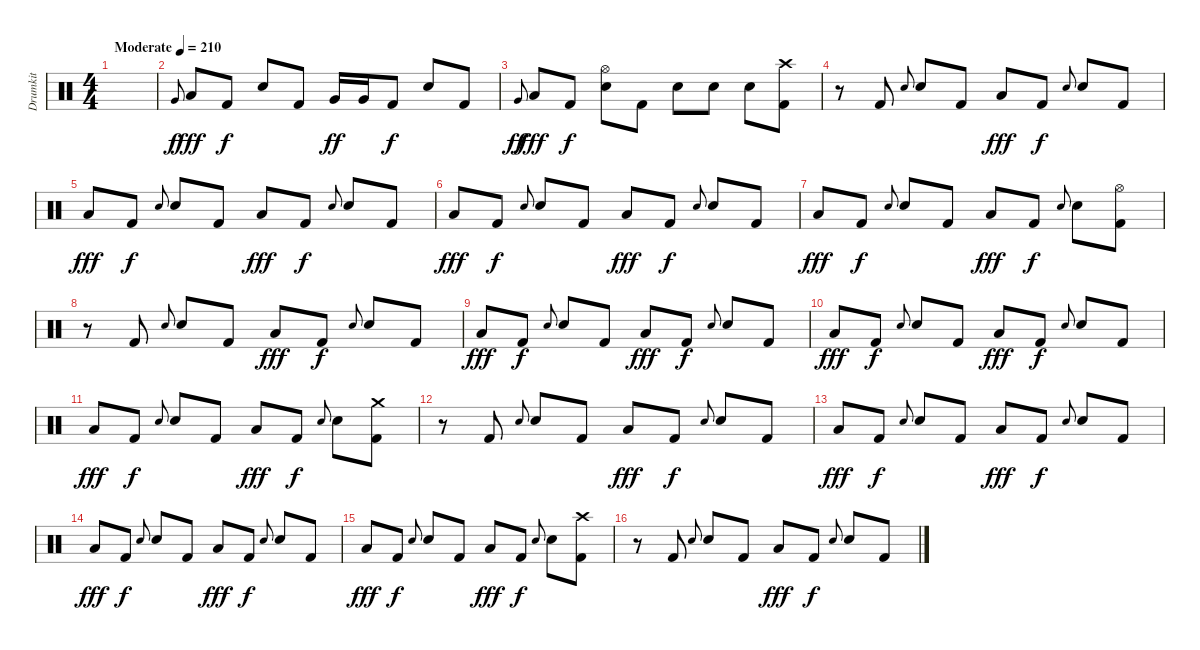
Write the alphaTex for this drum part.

\track ("Drumkit" "Drumkit") {instrument percussion}
\staff {score}
\articulation defaults
\ts (4 4)
\tempo (210 "Moderate")
\clef neutral
\ks c
|
"Very Low Tom (hit)".8{gr onbeat} "Low Floor Tom (hit)".8{dy fff} "Kick (hit) 2".8{dy f} "Electric Snare (hit)".8 "Kick (hit) 2".8 "Very Low Tom (hit)".16{dy ff} "Very Low Tom (hit)".16 "Kick (hit) 2".8{dy f} "Electric Snare (hit)".8 "Kick (hit) 2".8 |
"Very Low Tom (hit)".8{gr onbeat dy ff} "Low Floor Tom (hit)".8{dy fff} "Kick (hit) 2".8{dy f} ("Hi-Hat (open)" "Electric Snare (hit)").8 "Kick (hit) 2".8 "Electric Snare (hit)".8 "Electric Snare (hit)".8 "Electric Snare (hit)".8 ("Crash high (hit)" "Kick (hit) 2").8 |
r.8 "Kick (hit) 2".8 "Electric Snare (hit)".8{gr onbeat} "Electric Snare (hit)".8 "Kick (hit) 2".8 "Low Floor Tom (hit)".8{dy fff} "Kick (hit) 2".8{dy f} "Electric Snare (hit)".8{gr onbeat} "Electric Snare (hit)".8 "Kick (hit) 2".8 |
"Low Floor Tom (hit)".8{dy fff} "Kick (hit) 2".8{dy f} "Electric Snare (hit)".8{gr onbeat} "Electric Snare (hit)".8 "Kick (hit) 2".8 "Low Floor Tom (hit)".8{dy fff} "Kick (hit) 2".8{dy f} "Electric Snare (hit)".8{gr onbeat} "Electric Snare (hit)".8 "Kick (hit) 2".8 |
"Low Floor Tom (hit)".8{dy fff} "Kick (hit) 2".8{dy f} "Electric Snare (hit)".8{gr onbeat} "Electric Snare (hit)".8 "Kick (hit) 2".8 "Low Floor Tom (hit)".8{dy fff} "Kick (hit) 2".8{dy f} "Electric Snare (hit)".8{gr onbeat} "Electric Snare (hit)".8 "Kick (hit) 2".8 |
"Low Floor Tom (hit)".8{dy fff} "Kick (hit) 2".8{dy f} "Electric Snare (hit)".8{gr onbeat} "Electric Snare (hit)".8 "Kick (hit) 2".8 "Low Floor Tom (hit)".8{dy fff} "Kick (hit) 2".8{dy f} "Electric Snare (hit)".8{gr onbeat} "Electric Snare (hit)".8 ("Hi-Hat (open)" "Kick (hit) 2").8 |
r.8 "Kick (hit) 2".8 "Electric Snare (hit)".8{gr onbeat} "Electric Snare (hit)".8 "Kick (hit) 2".8 "Low Floor Tom (hit)".8{dy fff} "Kick (hit) 2".8{dy f} "Electric Snare (hit)".8{gr onbeat} "Electric Snare (hit)".8 "Kick (hit) 2".8 |
"Low Floor Tom (hit)".8{dy fff} "Kick (hit) 2".8{dy f} "Electric Snare (hit)".8{gr onbeat} "Electric Snare (hit)".8 "Kick (hit) 2".8 "Low Floor Tom (hit)".8{dy fff} "Kick (hit) 2".8{dy f} "Electric Snare (hit)".8{gr onbeat} "Electric Snare (hit)".8 "Kick (hit) 2".8 |
"Low Floor Tom (hit)".8{dy fff} "Kick (hit) 2".8{dy f} "Electric Snare (hit)".8{gr onbeat} "Electric Snare (hit)".8 "Kick (hit) 2".8 "Low Floor Tom (hit)".8{dy fff} "Kick (hit) 2".8{dy f} "Electric Snare (hit)".8{gr onbeat} "Electric Snare (hit)".8 "Kick (hit) 2".8 |
"Low Floor Tom (hit)".8{dy fff} "Kick (hit) 2".8{dy f} "Electric Snare (hit)".8{gr onbeat} "Electric Snare (hit)".8 "Kick (hit) 2".8 "Low Floor Tom (hit)".8{dy fff} "Kick (hit) 2".8{dy f} "Electric Snare (hit)".8{gr onbeat} "Electric Snare (hit)".8 ("Crash medium (hit)" "Kick (hit) 2").8 |
r.8 "Kick (hit) 2".8 "Electric Snare (hit)".8{gr onbeat} "Electric Snare (hit)".8 "Kick (hit) 2".8 "Low Floor Tom (hit)".8{dy fff} "Kick (hit) 2".8{dy f} "Electric Snare (hit)".8{gr onbeat} "Electric Snare (hit)".8 "Kick (hit) 2".8 |
"Low Floor Tom (hit)".8{dy fff} "Kick (hit) 2".8{dy f} "Electric Snare (hit)".8{gr onbeat} "Electric Snare (hit)".8 "Kick (hit) 2".8 "Low Floor Tom (hit)".8{dy fff} "Kick (hit) 2".8{dy f} "Electric Snare (hit)".8{gr onbeat} "Electric Snare (hit)".8 "Kick (hit) 2".8 |
"Low Floor Tom (hit)".8{dy fff} "Kick (hit) 2".8{dy f} "Electric Snare (hit)".8{gr onbeat} "Electric Snare (hit)".8 "Kick (hit) 2".8 "Low Floor Tom (hit)".8{dy fff} "Kick (hit) 2".8{dy f} "Electric Snare (hit)".8{gr onbeat} "Electric Snare (hit)".8 "Kick (hit) 2".8 |
"Low Floor Tom (hit)".8{dy fff} "Kick (hit) 2".8{dy f} "Electric Snare (hit)".8{gr onbeat} "Electric Snare (hit)".8 "Kick (hit) 2".8 "Low Floor Tom (hit)".8{dy fff} "Kick (hit) 2".8{dy f} "Electric Snare (hit)".8{gr onbeat} "Electric Snare (hit)".8 ("Crash high (hit)" "Kick (hit) 2").8 |
r.8 "Kick (hit) 2".8 "Electric Snare (hit)".8{gr onbeat} "Electric Snare (hit)".8 "Kick (hit) 2".8 "Low Floor Tom (hit)".8{dy fff} "Kick (hit) 2".8{dy f} "Electric Snare (hit)".8{gr onbeat} "Electric Snare (hit)".8 "Kick (hit) 2".8
